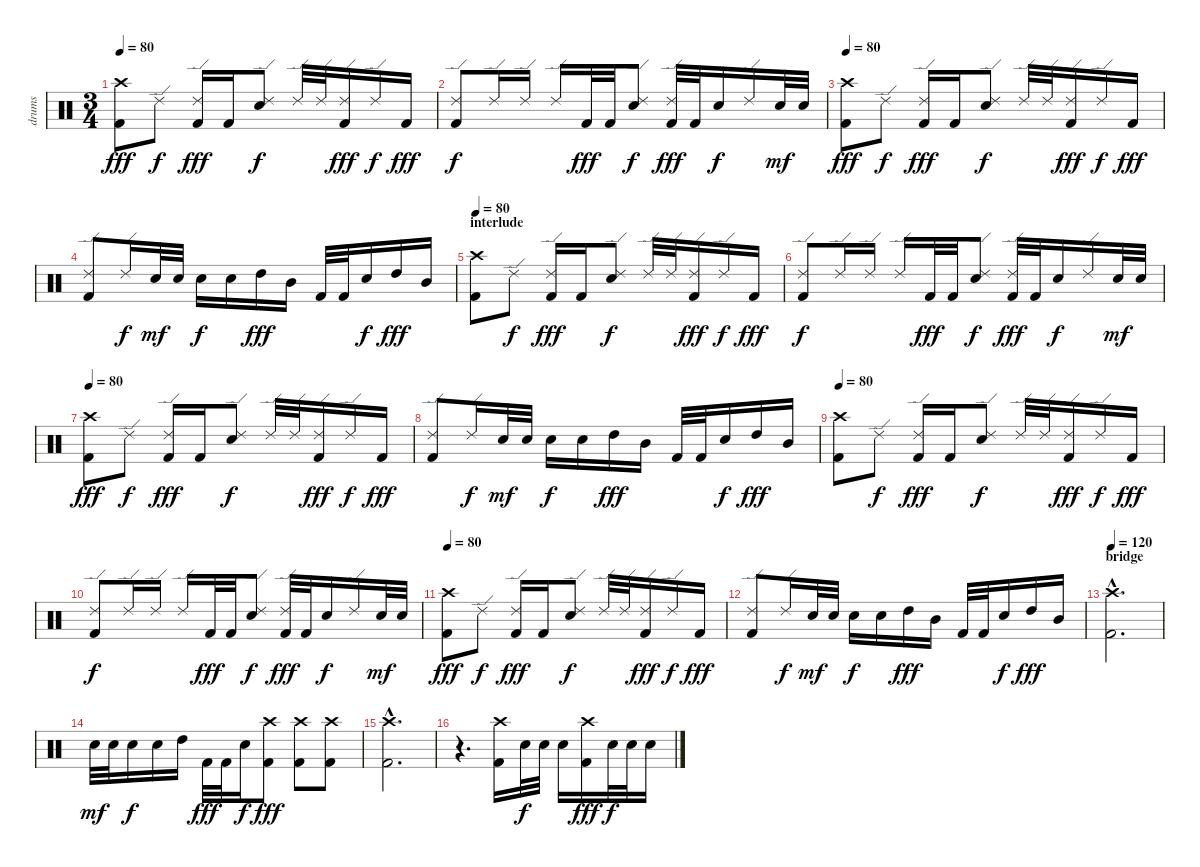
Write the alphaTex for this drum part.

\track ("drums" "drums") {instrument percussion}
\staff {score}
\articulation defaults
\ts (3 4)
\tempo 80
\clef neutral
\ks c
("Crash high (hit)" "Kick (hit) 2").8{dy fff} "Ride (edge) 2".8{dy f} ("Ride (edge) 2" "Kick (hit) 2").16{dy fff} "Kick (hit) 2".16 ("Ride (edge) 2" "Snare (hit) 2").8{dy f} "Ride (edge) 2".32 "Ride (edge) 2".32 ("Ride (edge) 2" "Kick (hit) 2").16{dy fff} "Ride (edge) 2".16{dy f} "Kick (hit) 2".16{dy fff} |
("Ride (edge) 2" "Kick (hit) 2").8{dy f} "Ride (edge) 2".16 "Ride (edge) 2".16 "Ride (edge) 2".16 "Kick (hit) 2".32{dy fff} "Kick (hit) 2".32 ("Ride (edge) 2" "Snare (hit) 2").8{dy f} ("Ride (edge) 2" "Kick (hit) 2").32{dy fff} "Kick (hit) 2".32 "Snare (hit) 2".16{dy f} "Ride (edge) 2".16 "Snare (hit) 2".32{dy mf} "Snare (hit) 2".32 |
\tempo 80
("Crash high (hit)" "Kick (hit) 2").8{dy fff} "Ride (edge) 2".8{dy f} ("Ride (edge) 2" "Kick (hit) 2").16{dy fff} "Kick (hit) 2".16 ("Ride (edge) 2" "Snare (hit) 2").8{dy f} "Ride (edge) 2".32 "Ride (edge) 2".32 ("Ride (edge) 2" "Kick (hit) 2").16{dy fff} "Ride (edge) 2".16{dy f} "Kick (hit) 2".16{dy fff} |
("Ride (edge) 2" "Kick (hit) 2").8 "Ride (edge) 2".16{dy f} "Snare (hit) 2".32{dy mf} "Snare (hit) 2".32 "Snare (hit) 2".16{dy f} "Snare (hit) 2".16 "High Tom (hit)".16{dy fff} "Mid Tom (hit)".16 "Kick (hit) 2".32 "Kick (hit) 2".32 "Snare (hit) 2".16{dy f} "High Tom (hit)".16{dy fff} "Mid Tom (hit)".16 |
\section ("" "interlude")
\tempo 80
("Crash high (hit)" "Kick (hit) 2").8 "Ride (edge) 2".8{dy f} ("Ride (edge) 2" "Kick (hit) 2").16{dy fff} "Kick (hit) 2".16 ("Ride (edge) 2" "Snare (hit) 2").8{dy f} "Ride (edge) 2".32 "Ride (edge) 2".32 ("Ride (edge) 2" "Kick (hit) 2").16{dy fff} "Ride (edge) 2".16{dy f} "Kick (hit) 2".16{dy fff} |
("Ride (edge) 2" "Kick (hit) 2").8{dy f} "Ride (edge) 2".16 "Ride (edge) 2".16 "Ride (edge) 2".16 "Kick (hit) 2".32{dy fff} "Kick (hit) 2".32 ("Ride (edge) 2" "Snare (hit) 2").8{dy f} ("Ride (edge) 2" "Kick (hit) 2").32{dy fff} "Kick (hit) 2".32 "Snare (hit) 2".16{dy f} "Ride (edge) 2".16 "Snare (hit) 2".32{dy mf} "Snare (hit) 2".32 |
\tempo 80
("Crash high (hit)" "Kick (hit) 2").8{dy fff} "Ride (edge) 2".8{dy f} ("Ride (edge) 2" "Kick (hit) 2").16{dy fff} "Kick (hit) 2".16 ("Ride (edge) 2" "Snare (hit) 2").8{dy f} "Ride (edge) 2".32 "Ride (edge) 2".32 ("Ride (edge) 2" "Kick (hit) 2").16{dy fff} "Ride (edge) 2".16{dy f} "Kick (hit) 2".16{dy fff} |
("Ride (edge) 2" "Kick (hit) 2").8 "Ride (edge) 2".16{dy f} "Snare (hit) 2".32{dy mf} "Snare (hit) 2".32 "Snare (hit) 2".16{dy f} "Snare (hit) 2".16 "High Tom (hit)".16{dy fff} "Mid Tom (hit)".16 "Kick (hit) 2".32 "Kick (hit) 2".32 "Snare (hit) 2".16{dy f} "High Tom (hit)".16{dy fff} "Mid Tom (hit)".16 |
\tempo 80
("Crash high (hit)" "Kick (hit) 2").8 "Ride (edge) 2".8{dy f} ("Ride (edge) 2" "Kick (hit) 2").16{dy fff} "Kick (hit) 2".16 ("Ride (edge) 2" "Snare (hit) 2").8{dy f} "Ride (edge) 2".32 "Ride (edge) 2".32 ("Ride (edge) 2" "Kick (hit) 2").16{dy fff} "Ride (edge) 2".16{dy f} "Kick (hit) 2".16{dy fff} |
("Ride (edge) 2" "Kick (hit) 2").8{dy f} "Ride (edge) 2".16 "Ride (edge) 2".16 "Ride (edge) 2".16 "Kick (hit) 2".32{dy fff} "Kick (hit) 2".32 ("Ride (edge) 2" "Snare (hit) 2").8{dy f} ("Ride (edge) 2" "Kick (hit) 2").32{dy fff} "Kick (hit) 2".32 "Snare (hit) 2".16{dy f} "Ride (edge) 2".16 "Snare (hit) 2".32{dy mf} "Snare (hit) 2".32 |
\tempo 80
("Crash high (hit)" "Kick (hit) 2").8{dy fff} "Ride (edge) 2".8{dy f} ("Ride (edge) 2" "Kick (hit) 2").16{dy fff} "Kick (hit) 2".16 ("Ride (edge) 2" "Snare (hit) 2").8{dy f} "Ride (edge) 2".32 "Ride (edge) 2".32 ("Ride (edge) 2" "Kick (hit) 2").16{dy fff} "Ride (edge) 2".16{dy f} "Kick (hit) 2".16{dy fff} |
("Ride (edge) 2" "Kick (hit) 2").8 "Ride (edge) 2".16{dy f} "Snare (hit) 2".32{dy mf} "Snare (hit) 2".32 "Snare (hit) 2".16{dy f} "Snare (hit) 2".16 "High Tom (hit)".16{dy fff} "Mid Tom (hit)".16 "Kick (hit) 2".32 "Kick (hit) 2".32 "Snare (hit) 2".16{dy f} "High Tom (hit)".16{dy fff} "Mid Tom (hit)".16 |
\section ("" "bridge")
\tempo 120
("Crash high (hit)"{hac} "Kick (hit) 2"{hac}).2{d} |
"Snare (hit) 2".32{dy mf} "Snare (hit) 2".32 "Snare (hit) 2".16{dy f} "Snare (hit) 2".16 "High Tom (hit)".16 "Kick (hit) 2".32{dy fff} "Kick (hit) 2".32 "Snare (hit) 2".16{dy f} ("Crash high (hit)" "Kick (hit) 2").8{dy fff} ("Crash high (hit)" "Kick (hit) 2").8 ("Crash high (hit)" "Kick (hit) 2").8 |
("Crash high (hit)"{hac} "Kick (hit) 2"{hac}).2{d} |
r.4{d} ("Crash high (hit)" "Kick (hit) 2").16 "Snare (hit) 2".32{dy f} "Snare (hit) 2".32 "Snare (hit) 2".16 ("Crash high (hit)" "Kick (hit) 2").16{dy fff} "Snare (hit) 2".32{dy f} "Snare (hit) 2".32 "Snare (hit) 2".16
